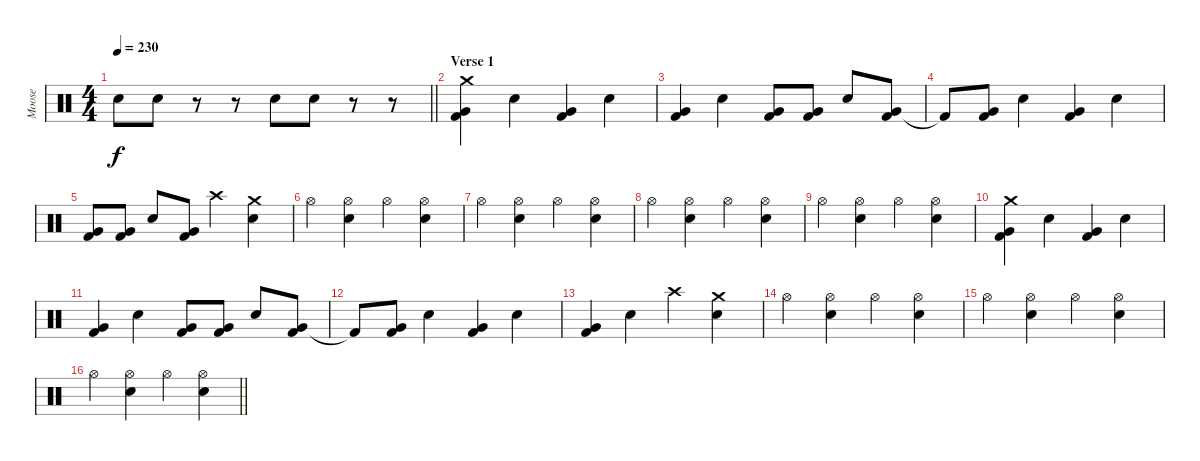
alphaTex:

\track ("Moose" "Moose") {instrument percussion}
\staff {score}
\articulation defaults
\ts (4 4)
\tempo 230
\clef neutral
\barLineRight lightlight
\ks c "Snare (hit) 2".8{dy f} "Snare (hit) 2".8
r.8 r.8 "Snare (hit) 2".8 "Snare (hit) 2".8 r.8 r.8 |
\section ("" "Verse 1")
("Crash medium (hit)" "Very Low Tom (hit)" "Kick (hit) 2").4 "Snare (hit) 2".4 ("Very Low Tom (hit)" "Kick (hit) 2").4 "Snare (hit) 2".4 |
("Very Low Tom (hit)" "Kick (hit) 2").4 "Snare (hit) 2".4 ("Very Low Tom (hit)" "Kick (hit) 2").8 ("Very Low Tom (hit)" "Kick (hit) 2").8 "Snare (hit) 2".8 ("Very Low Tom (hit)" "Kick (hit) 2").8 |
"Kick (hit) 2"{t}.8 ("Very Low Tom (hit)" "Kick (hit) 2").8 "Snare (hit) 2".4 ("Very Low Tom (hit)" "Kick (hit) 2").4 "Snare (hit) 2".4 |
("Very Low Tom (hit)" "Kick (hit) 2").8 ("Very Low Tom (hit)" "Kick (hit) 2").8 "Snare (hit) 2".8 ("Very Low Tom (hit)" "Kick (hit) 2").8 "Crash high (hit)".4 ("Crash medium (hit)" "Snare (hit) 2").4 |
"Hi-Hat (open)".4 ("Hi-Hat (open)" "Snare (hit) 2").4 "Hi-Hat (open)".4 ("Hi-Hat (open)" "Snare (hit) 2").4 |
"Hi-Hat (open)".4 ("Hi-Hat (open)" "Snare (hit) 2").4 "Hi-Hat (open)".4 ("Hi-Hat (open)" "Snare (hit) 2").4 |
"Hi-Hat (open)".4 ("Hi-Hat (open)" "Snare (hit) 2").4 "Hi-Hat (open)".4 ("Hi-Hat (open)" "Snare (hit) 2").4 |
"Hi-Hat (open)".4 ("Hi-Hat (open)" "Snare (hit) 2").4 "Hi-Hat (open)".4 ("Hi-Hat (open)" "Snare (hit) 2").4 |
("Crash medium (hit)" "Very Low Tom (hit)" "Kick (hit) 2").4 "Snare (hit) 2".4 ("Very Low Tom (hit)" "Kick (hit) 2").4 "Snare (hit) 2".4 |
("Very Low Tom (hit)" "Kick (hit) 2").4 "Snare (hit) 2".4 ("Very Low Tom (hit)" "Kick (hit) 2").8 ("Very Low Tom (hit)" "Kick (hit) 2").8 "Snare (hit) 2".8 ("Very Low Tom (hit)" "Kick (hit) 2").8 |
"Kick (hit) 2"{t}.8 ("Very Low Tom (hit)" "Kick (hit) 2").8 "Snare (hit) 2".4 ("Very Low Tom (hit)" "Kick (hit) 2").4 "Snare (hit) 2".4 |
("Very Low Tom (hit)" "Kick (hit) 2").4 "Snare (hit) 2".4 "Crash high (hit)".4 ("Crash medium (hit)" "Snare (hit) 2").4 |
"Hi-Hat (open)".4 ("Hi-Hat (open)" "Snare (hit) 2").4 "Hi-Hat (open)".4 ("Hi-Hat (open)" "Snare (hit) 2").4 |
"Hi-Hat (open)".4 ("Hi-Hat (open)" "Snare (hit) 2").4 "Hi-Hat (open)".4 ("Hi-Hat (open)" "Snare (hit) 2").4 |
\barLineRight lightlight "Hi-Hat (open)".4
("Hi-Hat (open)" "Snare (hit) 2").4 "Hi-Hat (open)".4 ("Hi-Hat (open)" "Snare (hit) 2").4
